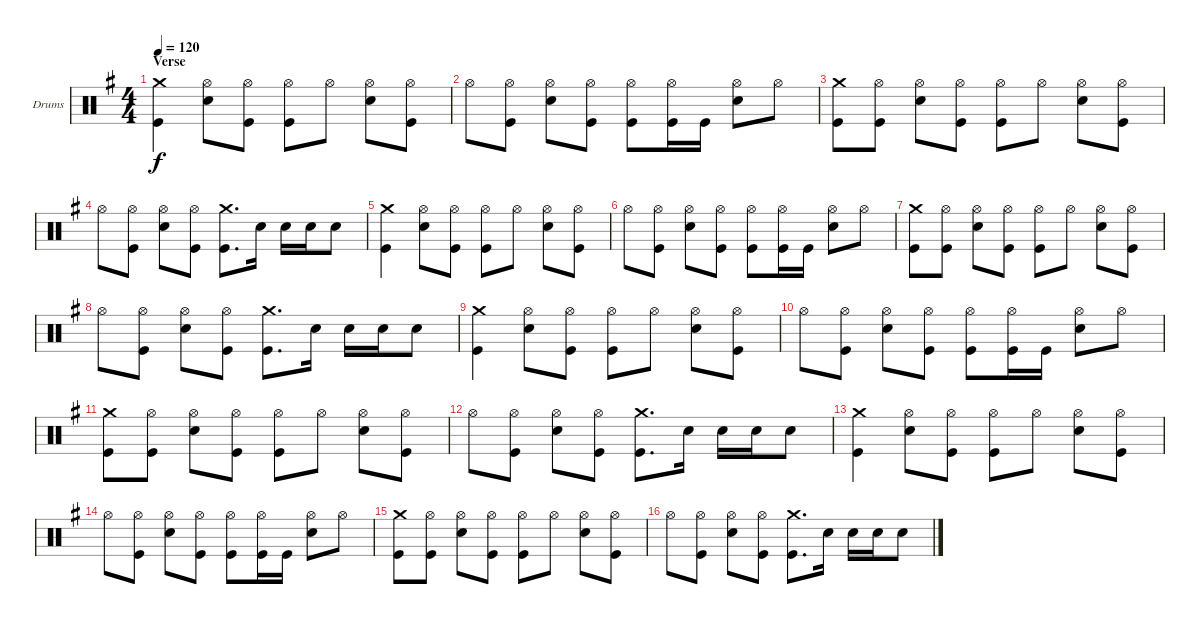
\defaultSystemsLayout 4
\bracketExtendMode groupsimilarinstruments
\firstSystemTrackNameOrientation horizontal
\otherSystemsTrackNameOrientation horizontal
\track ("Drumkit" "Drums") {instrument percussion}
\staff {score}
\articulation defaults
\ts (4 4)
\section ("" "Verse")
\tempo 120
\clef neutral
\scale
1.04288
\ks g
("Crash medium (hit)" "Kick (hit)").4{dy f} ("Hi-Hat (open)" "Snare (hit) 2").8 ("Hi-Hat (open)" "Kick (hit)").8 ("Hi-Hat (open)" "Kick (hit)").8 "Hi-Hat (open)".8 ("Hi-Hat (open)" "Snare (hit) 2").8 ("Hi-Hat (open)" "Kick (hit)").8 |
\scale
0.957125 "Hi-Hat (open)".8 ("Hi-Hat (open)" "Kick (hit)").8 ("Hi-Hat (open)" "Snare (hit) 2").8 ("Hi-Hat (open)" "Kick (hit)").8 ("Hi-Hat (open)" "Kick (hit)").8 ("Hi-Hat (open)" "Kick (hit)").16 "Kick (hit)".16 ("Hi-Hat (open)" "Snare (hit) 2").8 "Hi-Hat (open)".8 |
\scale
1.04288 ("Crash medium (hit)" "Kick (hit)").8 ("Hi-Hat (open)" "Kick (hit)").8 ("Hi-Hat (open)" "Snare (hit) 2").8 ("Hi-Hat (open)" "Kick (hit)").8 ("Hi-Hat (open)" "Kick (hit)").8 "Hi-Hat (open)".8 ("Hi-Hat (open)" "Snare (hit) 2").8 ("Hi-Hat (open)" "Kick (hit)").8 |
\scale
0.957125 "Hi-Hat (open)".8 ("Hi-Hat (open)" "Kick (hit)").8 ("Hi-Hat (open)" "Snare (hit) 2").8 ("Hi-Hat (open)" "Kick (hit)").8 ("Crash medium (hit)" "Kick (hit)").8{d} "Snare (hit) 2".16 "Snare (hit) 2".16 "Snare (hit) 2".16 "Snare (hit) 2".8 |
\scale
1.04288 ("Crash medium (hit)" "Kick (hit)").4 ("Hi-Hat (open)" "Snare (hit) 2").8 ("Hi-Hat (open)" "Kick (hit)").8 ("Hi-Hat (open)" "Kick (hit)").8 "Hi-Hat (open)".8 ("Hi-Hat (open)" "Snare (hit) 2").8 ("Hi-Hat (open)" "Kick (hit)").8 |
\scale
0.957125 "Hi-Hat (open)".8 ("Hi-Hat (open)" "Kick (hit)").8 ("Hi-Hat (open)" "Snare (hit) 2").8 ("Hi-Hat (open)" "Kick (hit)").8 ("Hi-Hat (open)" "Kick (hit)").8 ("Hi-Hat (open)" "Kick (hit)").16 "Kick (hit)".16 ("Hi-Hat (open)" "Snare (hit) 2").8 "Hi-Hat (open)".8 |
\scale
1.04288 ("Crash medium (hit)" "Kick (hit)").8 ("Hi-Hat (open)" "Kick (hit)").8 ("Hi-Hat (open)" "Snare (hit) 2").8 ("Hi-Hat (open)" "Kick (hit)").8 ("Hi-Hat (open)" "Kick (hit)").8 "Hi-Hat (open)".8 ("Hi-Hat (open)" "Snare (hit) 2").8 ("Hi-Hat (open)" "Kick (hit)").8 |
\scale
0.957125 "Hi-Hat (open)".8 ("Hi-Hat (open)" "Kick (hit)").8 ("Hi-Hat (open)" "Snare (hit) 2").8 ("Hi-Hat (open)" "Kick (hit)").8 ("Crash medium (hit)" "Kick (hit)").8{d} "Snare (hit) 2".16 "Snare (hit) 2".16 "Snare (hit) 2".16 "Snare (hit) 2".8 |
\scale
1.04288 ("Crash medium (hit)" "Kick (hit)").4 ("Hi-Hat (open)" "Snare (hit) 2").8 ("Hi-Hat (open)" "Kick (hit)").8 ("Hi-Hat (open)" "Kick (hit)").8 "Hi-Hat (open)".8 ("Hi-Hat (open)" "Snare (hit) 2").8 ("Hi-Hat (open)" "Kick (hit)").8 |
\scale
0.957125 "Hi-Hat (open)".8 ("Hi-Hat (open)" "Kick (hit)").8 ("Hi-Hat (open)" "Snare (hit) 2").8 ("Hi-Hat (open)" "Kick (hit)").8 ("Hi-Hat (open)" "Kick (hit)").8 ("Hi-Hat (open)" "Kick (hit)").16 "Kick (hit)".16 ("Hi-Hat (open)" "Snare (hit) 2").8 "Hi-Hat (open)".8 |
\scale
1.04288 ("Crash medium (hit)" "Kick (hit)").8 ("Hi-Hat (open)" "Kick (hit)").8 ("Hi-Hat (open)" "Snare (hit) 2").8 ("Hi-Hat (open)" "Kick (hit)").8 ("Hi-Hat (open)" "Kick (hit)").8 "Hi-Hat (open)".8 ("Hi-Hat (open)" "Snare (hit) 2").8 ("Hi-Hat (open)" "Kick (hit)").8 |
\scale
0.957125 "Hi-Hat (open)".8 ("Hi-Hat (open)" "Kick (hit)").8 ("Hi-Hat (open)" "Snare (hit) 2").8 ("Hi-Hat (open)" "Kick (hit)").8 ("Crash medium (hit)" "Kick (hit)").8{d} "Snare (hit) 2".16 "Snare (hit) 2".16 "Snare (hit) 2".16 "Snare (hit) 2".8 |
\scale
1.04288 ("Crash medium (hit)" "Kick (hit)").4 ("Hi-Hat (open)" "Snare (hit) 2").8 ("Hi-Hat (open)" "Kick (hit)").8 ("Hi-Hat (open)" "Kick (hit)").8 "Hi-Hat (open)".8 ("Hi-Hat (open)" "Snare (hit) 2").8 ("Hi-Hat (open)" "Kick (hit)").8 |
\scale
0.957125 "Hi-Hat (open)".8 ("Hi-Hat (open)" "Kick (hit)").8 ("Hi-Hat (open)" "Snare (hit) 2").8 ("Hi-Hat (open)" "Kick (hit)").8 ("Hi-Hat (open)" "Kick (hit)").8 ("Hi-Hat (open)" "Kick (hit)").16 "Kick (hit)".16 ("Hi-Hat (open)" "Snare (hit) 2").8 "Hi-Hat (open)".8 |
\scale
1.04288 ("Crash medium (hit)" "Kick (hit)").8 ("Hi-Hat (open)" "Kick (hit)").8 ("Hi-Hat (open)" "Snare (hit) 2").8 ("Hi-Hat (open)" "Kick (hit)").8 ("Hi-Hat (open)" "Kick (hit)").8 "Hi-Hat (open)".8 ("Hi-Hat (open)" "Snare (hit) 2").8 ("Hi-Hat (open)" "Kick (hit)").8 |
\scale
0.957125 "Hi-Hat (open)".8 ("Hi-Hat (open)" "Kick (hit)").8 ("Hi-Hat (open)" "Snare (hit) 2").8 ("Hi-Hat (open)" "Kick (hit)").8 ("Crash medium (hit)" "Kick (hit)").8{d} "Snare (hit) 2".16 "Snare (hit) 2".16 "Snare (hit) 2".16 "Snare (hit) 2".8
